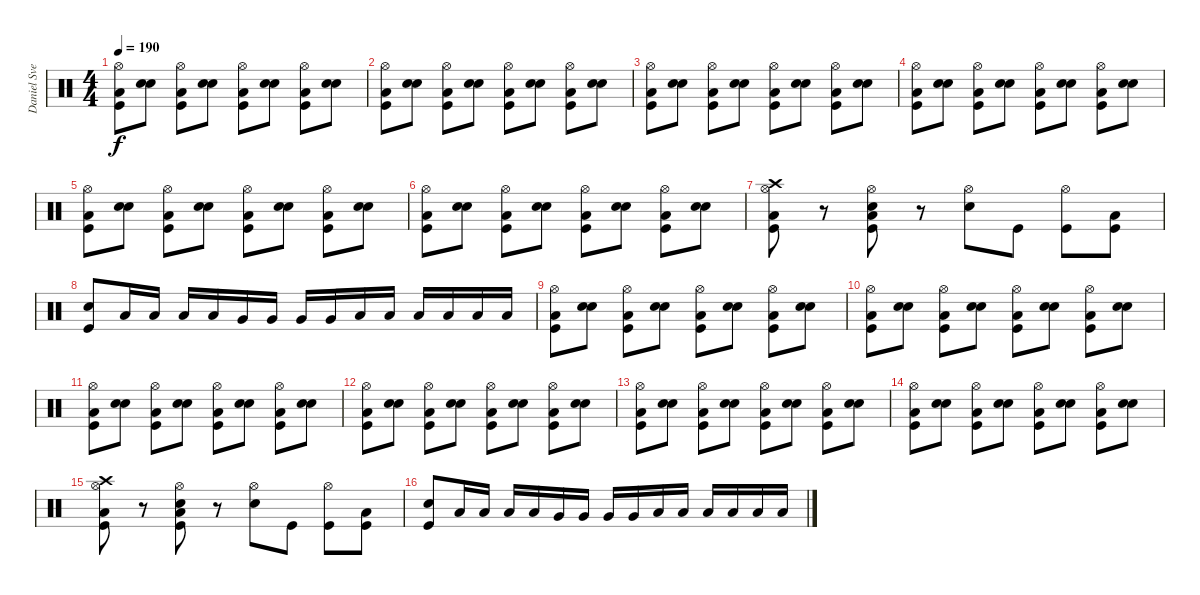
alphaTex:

\track ("Daniel Svensson" "Daniel Sve") {instrument percussion}
\staff {score}
\articulation defaults
\ts (4 4)
\tempo 190
\clef neutral
\ks c
("Hi-Hat (open)" "Low Floor Tom (hit)" "Kick (hit)").8{dy f} ("Electric Snare (hit)" "Electric Snare (hit)").8 ("Hi-Hat (open)" "Low Floor Tom (hit)" "Kick (hit)").8 ("Electric Snare (hit)" "Electric Snare (hit)").8 ("Hi-Hat (open)" "Low Floor Tom (hit)" "Kick (hit)").8 ("Electric Snare (hit)" "Electric Snare (hit)").8 ("Hi-Hat (open)" "Low Floor Tom (hit)" "Kick (hit)").8 ("Electric Snare (hit)" "Electric Snare (hit)").8 |
("Hi-Hat (open)" "Low Floor Tom (hit)" "Kick (hit)").8 ("Electric Snare (hit)" "Electric Snare (hit)").8 ("Hi-Hat (open)" "Low Floor Tom (hit)" "Kick (hit)").8 ("Electric Snare (hit)" "Electric Snare (hit)").8 ("Hi-Hat (open)" "Low Floor Tom (hit)" "Kick (hit)").8 ("Electric Snare (hit)" "Electric Snare (hit)").8 ("Hi-Hat (open)" "Low Floor Tom (hit)" "Kick (hit)").8 ("Electric Snare (hit)" "Electric Snare (hit)").8 |
("Hi-Hat (open)" "Low Floor Tom (hit)" "Kick (hit)").8 ("Electric Snare (hit)" "Electric Snare (hit)").8 ("Hi-Hat (open)" "Low Floor Tom (hit)" "Kick (hit)").8 ("Electric Snare (hit)" "Electric Snare (hit)").8 ("Hi-Hat (open)" "Low Floor Tom (hit)" "Kick (hit)").8 ("Electric Snare (hit)" "Electric Snare (hit)").8 ("Hi-Hat (open)" "Low Floor Tom (hit)" "Kick (hit)").8 ("Electric Snare (hit)" "Electric Snare (hit)").8 |
("Hi-Hat (open)" "Low Floor Tom (hit)" "Kick (hit)").8 ("Electric Snare (hit)" "Electric Snare (hit)").8 ("Hi-Hat (open)" "Low Floor Tom (hit)" "Kick (hit)").8 ("Electric Snare (hit)" "Electric Snare (hit)").8 ("Hi-Hat (open)" "Low Floor Tom (hit)" "Kick (hit)").8 ("Electric Snare (hit)" "Electric Snare (hit)").8 ("Hi-Hat (open)" "Low Floor Tom (hit)" "Kick (hit)").8 ("Electric Snare (hit)" "Electric Snare (hit)").8 |
("Hi-Hat (open)" "Low Floor Tom (hit)" "Kick (hit)").8 ("Electric Snare (hit)" "Electric Snare (hit)").8 ("Hi-Hat (open)" "Low Floor Tom (hit)" "Kick (hit)").8 ("Electric Snare (hit)" "Electric Snare (hit)").8 ("Hi-Hat (open)" "Low Floor Tom (hit)" "Kick (hit)").8 ("Electric Snare (hit)" "Electric Snare (hit)").8 ("Hi-Hat (open)" "Low Floor Tom (hit)" "Kick (hit)").8 ("Electric Snare (hit)" "Electric Snare (hit)").8 |
("Hi-Hat (open)" "Low Floor Tom (hit)" "Kick (hit)").8 ("Electric Snare (hit)" "Electric Snare (hit)").8 ("Hi-Hat (open)" "Low Floor Tom (hit)" "Kick (hit)").8 ("Electric Snare (hit)" "Electric Snare (hit)").8 ("Hi-Hat (open)" "Low Floor Tom (hit)" "Kick (hit)").8 ("Electric Snare (hit)" "Electric Snare (hit)").8 ("Hi-Hat (open)" "Low Floor Tom (hit)" "Kick (hit)").8 ("Electric Snare (hit)" "Electric Snare (hit)").8 |
("Crash high (hit)" "Hi-Hat (open)" "Low Floor Tom (hit)" "Kick (hit)").8 r.8 ("Electric Snare (hit)" "Hi-Hat (open)" "Low Floor Tom (hit)" "Kick (hit)").8 r.8 ("Hi-Hat (open)" "Electric Snare (hit)").8 "Kick (hit)".8 ("Hi-Hat (open)" "Kick (hit)").8 ("Low Floor Tom (hit)" "Kick (hit)").8 |
("Electric Snare (hit)" "Kick (hit)").8 "Low Tom (hit)".16 "Low Tom (hit)".16 "Low Tom (hit)".16 "Low Tom (hit)".16 "Very Low Tom (hit)".16 "Very Low Tom (hit)".16 "Very Low Tom (hit)".16 "Very Low Tom (hit)".16 "Low Floor Tom (hit)".16 "Low Floor Tom (hit)".16 "Low Floor Tom (hit)".16 "Low Floor Tom (hit)".16 "Low Floor Tom (hit)".16 "Low Floor Tom (hit)".16 |
("Hi-Hat (open)" "Low Floor Tom (hit)" "Kick (hit)").8 ("Electric Snare (hit)" "Electric Snare (hit)").8 ("Hi-Hat (open)" "Low Floor Tom (hit)" "Kick (hit)").8 ("Electric Snare (hit)" "Electric Snare (hit)").8 ("Hi-Hat (open)" "Low Floor Tom (hit)" "Kick (hit)").8 ("Electric Snare (hit)" "Electric Snare (hit)").8 ("Hi-Hat (open)" "Low Floor Tom (hit)" "Kick (hit)").8 ("Electric Snare (hit)" "Electric Snare (hit)").8 |
("Hi-Hat (open)" "Low Floor Tom (hit)" "Kick (hit)").8 ("Electric Snare (hit)" "Electric Snare (hit)").8 ("Hi-Hat (open)" "Low Floor Tom (hit)" "Kick (hit)").8 ("Electric Snare (hit)" "Electric Snare (hit)").8 ("Hi-Hat (open)" "Low Floor Tom (hit)" "Kick (hit)").8 ("Electric Snare (hit)" "Electric Snare (hit)").8 ("Hi-Hat (open)" "Low Floor Tom (hit)" "Kick (hit)").8 ("Electric Snare (hit)" "Electric Snare (hit)").8 |
("Hi-Hat (open)" "Low Floor Tom (hit)" "Kick (hit)").8 ("Electric Snare (hit)" "Electric Snare (hit)").8 ("Hi-Hat (open)" "Low Floor Tom (hit)" "Kick (hit)").8 ("Electric Snare (hit)" "Electric Snare (hit)").8 ("Hi-Hat (open)" "Low Floor Tom (hit)" "Kick (hit)").8 ("Electric Snare (hit)" "Electric Snare (hit)").8 ("Hi-Hat (open)" "Low Floor Tom (hit)" "Kick (hit)").8 ("Electric Snare (hit)" "Electric Snare (hit)").8 |
("Hi-Hat (open)" "Low Floor Tom (hit)" "Kick (hit)").8 ("Electric Snare (hit)" "Electric Snare (hit)").8 ("Hi-Hat (open)" "Low Floor Tom (hit)" "Kick (hit)").8 ("Electric Snare (hit)" "Electric Snare (hit)").8 ("Hi-Hat (open)" "Low Floor Tom (hit)" "Kick (hit)").8 ("Electric Snare (hit)" "Electric Snare (hit)").8 ("Hi-Hat (open)" "Low Floor Tom (hit)" "Kick (hit)").8 ("Electric Snare (hit)" "Electric Snare (hit)").8 |
("Hi-Hat (open)" "Low Floor Tom (hit)" "Kick (hit)").8 ("Electric Snare (hit)" "Electric Snare (hit)").8 ("Hi-Hat (open)" "Low Floor Tom (hit)" "Kick (hit)").8 ("Electric Snare (hit)" "Electric Snare (hit)").8 ("Hi-Hat (open)" "Low Floor Tom (hit)" "Kick (hit)").8 ("Electric Snare (hit)" "Electric Snare (hit)").8 ("Hi-Hat (open)" "Low Floor Tom (hit)" "Kick (hit)").8 ("Electric Snare (hit)" "Electric Snare (hit)").8 |
("Hi-Hat (open)" "Low Floor Tom (hit)" "Kick (hit)").8 ("Electric Snare (hit)" "Electric Snare (hit)").8 ("Hi-Hat (open)" "Low Floor Tom (hit)" "Kick (hit)").8 ("Electric Snare (hit)" "Electric Snare (hit)").8 ("Hi-Hat (open)" "Low Floor Tom (hit)" "Kick (hit)").8 ("Electric Snare (hit)" "Electric Snare (hit)").8 ("Hi-Hat (open)" "Low Floor Tom (hit)" "Kick (hit)").8 ("Electric Snare (hit)" "Electric Snare (hit)").8 |
("Crash high (hit)" "Hi-Hat (open)" "Low Floor Tom (hit)" "Kick (hit)").8 r.8 ("Electric Snare (hit)" "Hi-Hat (open)" "Low Floor Tom (hit)" "Kick (hit)").8 r.8 ("Hi-Hat (open)" "Electric Snare (hit)").8 "Kick (hit)".8 ("Hi-Hat (open)" "Kick (hit)").8 ("Low Floor Tom (hit)" "Kick (hit)").8 |
("Electric Snare (hit)" "Kick (hit)").8 "Low Tom (hit)".16 "Low Tom (hit)".16 "Low Tom (hit)".16 "Low Tom (hit)".16 "Very Low Tom (hit)".16 "Very Low Tom (hit)".16 "Very Low Tom (hit)".16 "Very Low Tom (hit)".16 "Low Floor Tom (hit)".16 "Low Floor Tom (hit)".16 "Low Floor Tom (hit)".16 "Low Floor Tom (hit)".16 "Low Floor Tom (hit)".16 "Low Floor Tom (hit)".16
